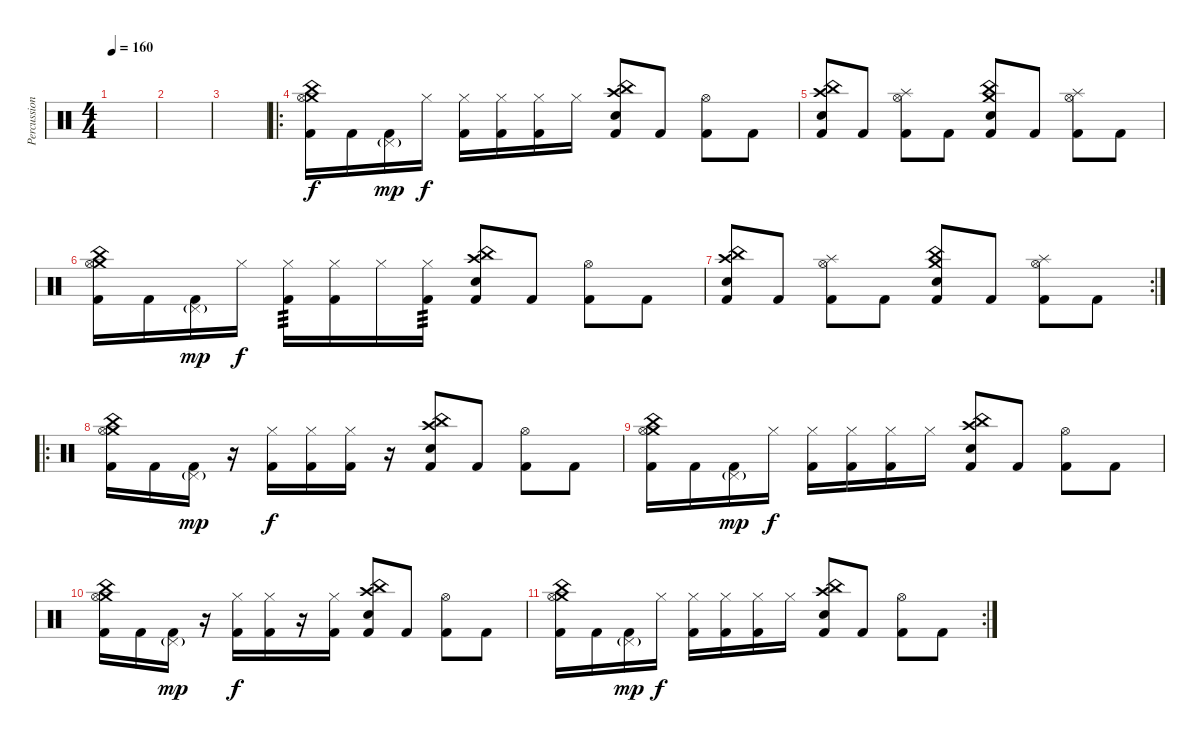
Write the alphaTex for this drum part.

\track ("Percussion" "Percussion") {instrument percussion}
\staff {score}
\articulation defaults
\ts (4 4)
\tempo 160
\clef neutral
\ks c
|
|
|
\ro
("Kick (hit) 2" "China (hit)" "Crash medium (hit)" "Hi-Hat (open)").16{dy f} "Kick (hit) 2".16 ("Kick (hit) 2" "Pedal Hi-Hat (hit)"{g}).16{dy mp} "Hi-Hat (closed)".16{dy f} ("Kick (hit) 2" "Hi-Hat (closed)").16 ("Kick (hit) 2" "Hi-Hat (closed)").16 ("Kick (hit) 2" "Hi-Hat (closed)").16 "Hi-Hat (closed)".16 ("Kick (hit) 2" "China (hit)" "Crash high (hit)" "Electric Snare (hit)").8 "Kick (hit) 2".8 ("Kick (hit) 2" "Hi-Hat (open)").8 "Kick (hit) 2".8 |
("Kick (hit) 2" "China (hit)" "Crash high (hit)" "Electric Snare (hit)").8 "Kick (hit) 2".8 ("Kick (hit) 2" "Hi-Hat (open)" "Splash (hit)").8 "Kick (hit) 2".8 ("Kick (hit) 2" "China (hit)" "Crash medium (hit)" "Electric Snare (hit)").8 "Kick (hit) 2".8 ("Kick (hit) 2" "Hi-Hat (open)" "Splash (hit)").8 "Kick (hit) 2".8 |
("Kick (hit) 2" "China (hit)" "Crash medium (hit)" "Hi-Hat (open)").16 "Kick (hit) 2".16 ("Kick (hit) 2" "Pedal Hi-Hat (hit)"{g}).16{dy mp} "Hi-Hat (closed)".16{dy f} ("Kick (hit) 2" "Hi-Hat (closed)").16{tp 3} ("Kick (hit) 2" "Hi-Hat (closed)").16 "Hi-Hat (closed)".16 ("Kick (hit) 2" "Hi-Hat (closed)").16{tp 3} ("Kick (hit) 2" "China (hit)" "Crash high (hit)" "Electric Snare (hit)").8 "Kick (hit) 2".8 ("Kick (hit) 2" "Hi-Hat (open)").8 "Kick (hit) 2".8 |
\rc 2
("Kick (hit) 2" "China (hit)" "Crash high (hit)" "Electric Snare (hit)").8 "Kick (hit) 2".8 ("Kick (hit) 2" "Hi-Hat (open)" "Splash (hit)").8 "Kick (hit) 2".8 ("Kick (hit) 2" "China (hit)" "Crash medium (hit)" "Electric Snare (hit)").8 "Kick (hit) 2".8 ("Kick (hit) 2" "Hi-Hat (open)" "Splash (hit)").8 "Kick (hit) 2".8 |
\ro
("Kick (hit) 2" "China (hit)" "Crash medium (hit)" "Hi-Hat (open)").16 "Kick (hit) 2".16 ("Kick (hit) 2" "Pedal Hi-Hat (hit)"{g}).16{dy mp} r.16 ("Kick (hit) 2" "Hi-Hat (closed)").16{dy f} ("Kick (hit) 2" "Hi-Hat (closed)").16 ("Kick (hit) 2" "Hi-Hat (closed)").16 r.16 ("Kick (hit) 2" "China (hit)" "Crash high (hit)" "Electric Snare (hit)").8 "Kick (hit) 2".8 ("Kick (hit) 2" "Hi-Hat (open)").8 "Kick (hit) 2".8 |
("Kick (hit) 2" "China (hit)" "Crash medium (hit)" "Hi-Hat (open)").16 "Kick (hit) 2".16 ("Kick (hit) 2" "Pedal Hi-Hat (hit)"{g}).16{dy mp} "Hi-Hat (closed)".16{dy f} ("Kick (hit) 2" "Hi-Hat (closed)").16 ("Kick (hit) 2" "Hi-Hat (closed)").16 ("Kick (hit) 2" "Hi-Hat (closed)").16 "Hi-Hat (closed)".16 ("Kick (hit) 2" "China (hit)" "Crash high (hit)" "Electric Snare (hit)").8 "Kick (hit) 2".8 ("Kick (hit) 2" "Hi-Hat (open)").8 "Kick (hit) 2".8 |
("Kick (hit) 2" "China (hit)" "Crash medium (hit)" "Hi-Hat (open)").16 "Kick (hit) 2".16 ("Kick (hit) 2" "Pedal Hi-Hat (hit)"{g}).16{dy mp} r.16 ("Kick (hit) 2" "Hi-Hat (closed)").16{dy f} ("Kick (hit) 2" "Hi-Hat (closed)").16 r.16 ("Kick (hit) 2" "Hi-Hat (closed)").16 ("Kick (hit) 2" "China (hit)" "Crash high (hit)" "Electric Snare (hit)").8 "Kick (hit) 2".8 ("Kick (hit) 2" "Hi-Hat (open)").8 "Kick (hit) 2".8 |
\rc 2
("Kick (hit) 2" "China (hit)" "Crash medium (hit)" "Hi-Hat (open)").16 "Kick (hit) 2".16 ("Kick (hit) 2" "Pedal Hi-Hat (hit)"{g}).16{dy mp} "Hi-Hat (closed)".16{dy f} ("Kick (hit) 2" "Hi-Hat (closed)").16 ("Kick (hit) 2" "Hi-Hat (closed)").16 ("Kick (hit) 2" "Hi-Hat (closed)").16 "Hi-Hat (closed)".16 ("Kick (hit) 2" "China (hit)" "Crash high (hit)" "Electric Snare (hit)").8 "Kick (hit) 2".8 ("Kick (hit) 2" "Hi-Hat (open)").8 "Kick (hit) 2".8
